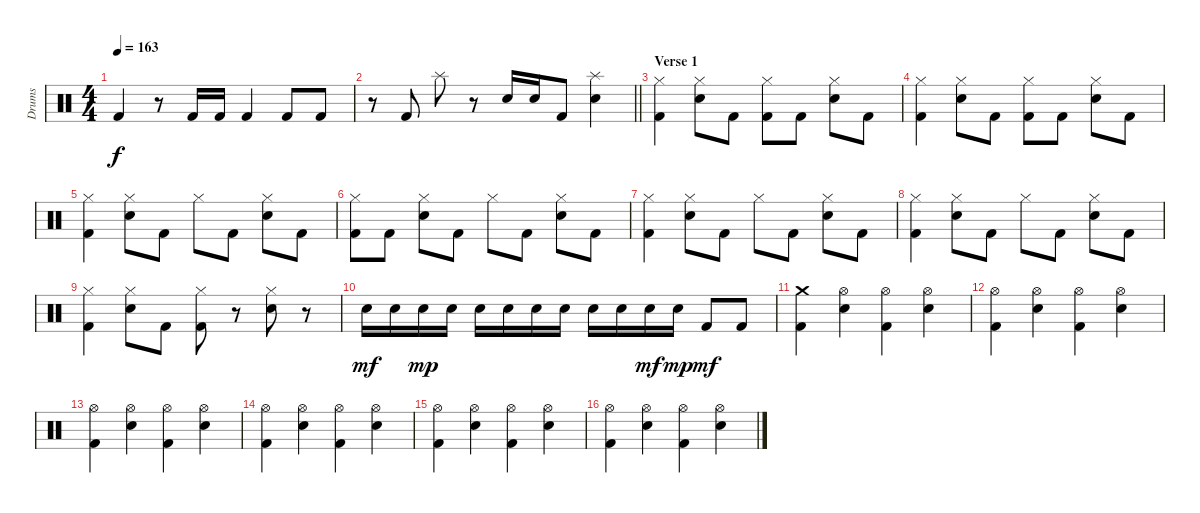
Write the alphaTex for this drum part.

\track ("Drums" "Drums") {instrument percussion}
\staff {score}
\articulation defaults
\ts (4 4)
\tempo 163
\clef neutral
\ks c "Kick (hit) 2".4{dy f}
r.8 "Kick (hit) 2".16 "Kick (hit) 2".16 "Kick (hit) 2".4 "Kick (hit) 2".8 "Kick (hit) 2".8 |
\barLineRight lightlight
r.8 "Kick (hit) 2".8 "Splash (hit)".8 r.8 "Electric Snare (hit)".16 "Electric Snare (hit)".16 "Kick (hit) 2".8 ("Splash (hit)" "Electric Snare (hit)").4 |
\section ("" "Verse 1")
("Hi-Hat (closed)" "Kick (hit) 2").4 ("Hi-Hat (closed)" "Electric Snare (hit)").8 "Kick (hit) 2".8 ("Hi-Hat (closed)" "Kick (hit) 2").8 "Kick (hit) 2".8 ("Hi-Hat (closed)" "Electric Snare (hit)").8 "Kick (hit) 2".8 |
("Hi-Hat (closed)" "Kick (hit) 2").4 ("Hi-Hat (closed)" "Electric Snare (hit)").8 "Kick (hit) 2".8 ("Hi-Hat (closed)" "Kick (hit) 2").8 "Kick (hit) 2".8 ("Hi-Hat (closed)" "Electric Snare (hit)").8 "Kick (hit) 2".8 |
("Hi-Hat (closed)" "Kick (hit) 2").4 ("Hi-Hat (closed)" "Electric Snare (hit)").8 "Kick (hit) 2".8 "Hi-Hat (closed)".8 "Kick (hit) 2".8 ("Hi-Hat (closed)" "Electric Snare (hit)").8 "Kick (hit) 2".8 |
("Hi-Hat (closed)" "Kick (hit) 2").8 "Kick (hit) 2".8 ("Hi-Hat (closed)" "Electric Snare (hit)").8 "Kick (hit) 2".8 "Hi-Hat (closed)".8 "Kick (hit) 2".8 ("Hi-Hat (closed)" "Electric Snare (hit)").8 "Kick (hit) 2".8 |
("Hi-Hat (closed)" "Kick (hit) 2").4 ("Hi-Hat (closed)" "Electric Snare (hit)").8 "Kick (hit) 2".8 "Hi-Hat (closed)".8 "Kick (hit) 2".8 ("Hi-Hat (closed)" "Electric Snare (hit)").8 "Kick (hit) 2".8 |
("Hi-Hat (closed)" "Kick (hit) 2").4 ("Hi-Hat (closed)" "Electric Snare (hit)").8 "Kick (hit) 2".8 "Hi-Hat (closed)".8 "Kick (hit) 2".8 ("Hi-Hat (closed)" "Electric Snare (hit)").8 "Kick (hit) 2".8 |
("Hi-Hat (closed)" "Kick (hit) 2").4 ("Hi-Hat (closed)" "Electric Snare (hit)").8 "Kick (hit) 2".8 ("Hi-Hat (closed)" "Kick (hit) 2").8 r.8 ("Hi-Hat (closed)" "Electric Snare (hit)").8 r.8 |
"Electric Snare (hit)".16{dy mf} "Electric Snare (hit)".16 "Electric Snare (hit)".16{dy mp} "Electric Snare (hit)".16 "Electric Snare (hit)".16 "Electric Snare (hit)".16 "Electric Snare (hit)".16 "Electric Snare (hit)".16 "Electric Snare (hit)".16 "Electric Snare (hit)".16 "Electric Snare (hit)".16{dy mf} "Electric Snare (hit)".16{dy mp} "Kick (hit) 2".8{dy mf} "Kick (hit) 2".8 |
("Crash medium (hit)" "Kick (hit) 2").4 ("Hi-Hat (open)" "Electric Snare (hit)").4 ("Hi-Hat (open)" "Kick (hit) 2").4 ("Hi-Hat (open)" "Electric Snare (hit)").4 |
("Hi-Hat (open)" "Kick (hit) 2").4 ("Hi-Hat (open)" "Electric Snare (hit)").4 ("Hi-Hat (open)" "Kick (hit) 2").4 ("Hi-Hat (open)" "Electric Snare (hit)").4 |
("Hi-Hat (open)" "Kick (hit) 2").4 ("Hi-Hat (open)" "Electric Snare (hit)").4 ("Hi-Hat (open)" "Kick (hit) 2").4 ("Hi-Hat (open)" "Electric Snare (hit)").4 |
("Hi-Hat (open)" "Kick (hit) 2").4 ("Hi-Hat (open)" "Electric Snare (hit)").4 ("Hi-Hat (open)" "Kick (hit) 2").4 ("Hi-Hat (open)" "Electric Snare (hit)").4 |
("Hi-Hat (open)" "Kick (hit) 2").4 ("Hi-Hat (open)" "Electric Snare (hit)").4 ("Hi-Hat (open)" "Kick (hit) 2").4 ("Hi-Hat (open)" "Electric Snare (hit)").4 |
("Hi-Hat (open)" "Kick (hit) 2").4 ("Hi-Hat (open)" "Electric Snare (hit)").4 ("Hi-Hat (open)" "Kick (hit) 2").4 ("Hi-Hat (open)" "Electric Snare (hit)").4
